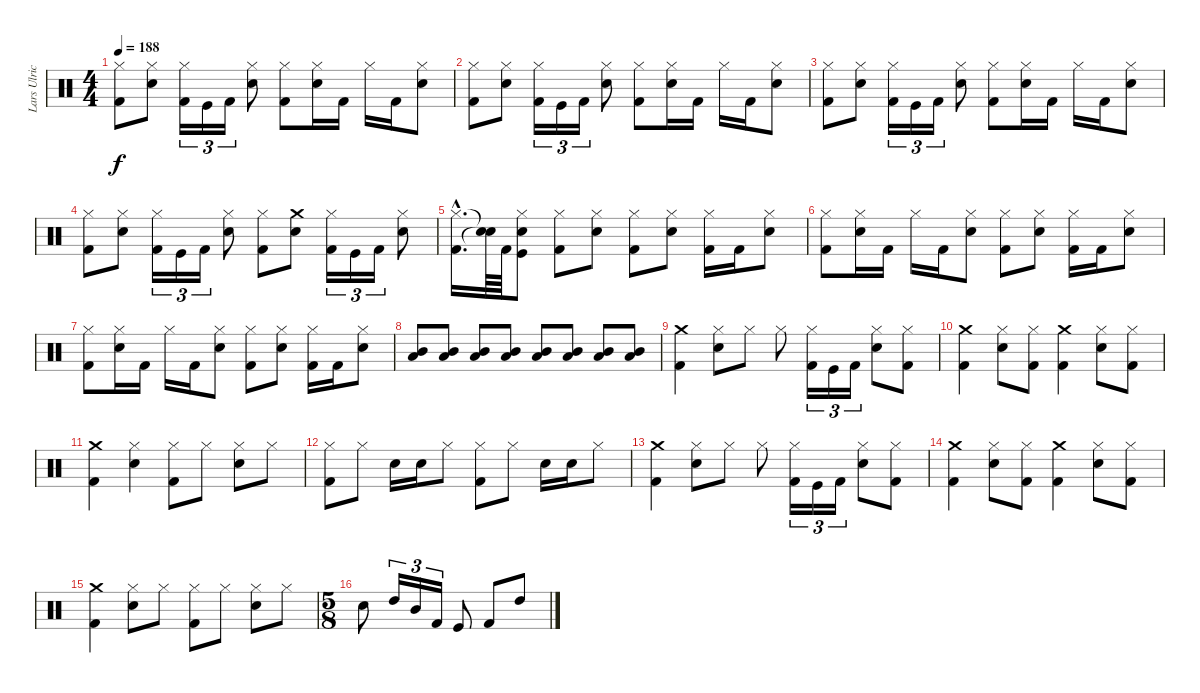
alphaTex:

\track ("Lars Ulrich (Drums)" "Lars Ulric") {instrument percussion}
\staff {score}
\articulation defaults
\ts (4 4)
\tempo 188
\clef neutral
\ks c
("Kick (hit) 2" "Hi-Hat (closed)").8{dy f} ("Snare (hit) 2" "Hi-Hat (closed)").8 ("Kick (hit) 2" "Hi-Hat (closed)").16{tu (3 2)} "Kick (hit)".16{tu (3 2)} "Kick (hit) 2".16{tu (3 2)} ("Snare (hit) 2" "Hi-Hat (closed)").8 ("Kick (hit) 2" "Hi-Hat (closed)").8 ("Snare (hit) 2" "Hi-Hat (closed)").16 "Kick (hit) 2".16 "Hi-Hat (closed)".16 "Kick (hit) 2".16 ("Snare (hit) 2" "Hi-Hat (closed)").8 |
("Kick (hit) 2" "Hi-Hat (closed)").8 ("Snare (hit) 2" "Hi-Hat (closed)").8 ("Kick (hit) 2" "Hi-Hat (closed)").16{tu (3 2)} "Kick (hit)".16{tu (3 2)} "Kick (hit) 2".16{tu (3 2)} ("Snare (hit) 2" "Hi-Hat (closed)").8 ("Kick (hit) 2" "Hi-Hat (closed)").8 ("Snare (hit) 2" "Hi-Hat (closed)").16 "Kick (hit) 2".16 "Hi-Hat (closed)".16 "Kick (hit) 2".16 ("Snare (hit) 2" "Hi-Hat (closed)").8 |
("Kick (hit) 2" "Hi-Hat (closed)").8 ("Snare (hit) 2" "Hi-Hat (closed)").8 ("Kick (hit) 2" "Hi-Hat (closed)").16{tu (3 2)} "Kick (hit)".16{tu (3 2)} "Kick (hit) 2".16{tu (3 2)} ("Snare (hit) 2" "Hi-Hat (closed)").8 ("Kick (hit) 2" "Hi-Hat (closed)").8 ("Snare (hit) 2" "Hi-Hat (closed)").16 "Kick (hit) 2".16 "Hi-Hat (closed)".16 "Kick (hit) 2".16 ("Snare (hit) 2" "Hi-Hat (closed)").8 |
("Kick (hit) 2" "Hi-Hat (closed)").8 ("Snare (hit) 2" "Hi-Hat (closed)").8 ("Kick (hit) 2" "Hi-Hat (closed)").16{tu (3 2)} "Kick (hit)".16{tu (3 2)} "Kick (hit) 2".16{tu (3 2)} ("Snare (hit) 2" "Hi-Hat (closed)").8 ("Kick (hit) 2" "Hi-Hat (closed)").8 ("Crash medium (hit)" "Snare (hit) 2").8 ("Kick (hit) 2" "Hi-Hat (closed)").16{tu (3 2)} "Kick (hit)".16{tu (3 2)} "Kick (hit) 2".16{tu (3 2)} ("Snare (hit) 2" "Hi-Hat (closed)").8 |
("Kick (hit) 2"{hac} "Hi-Hat (closed)"{hac}).16{d} ("Snare (hit)"{t} "Snare (hit)"{t}).64 "Kick (hit) 2".64 ("Kick (hit)" "Snare (hit) 2" "Hi-Hat (closed)").8 ("Kick (hit) 2" "Hi-Hat (closed)").8 ("Snare (hit) 2" "Hi-Hat (closed)").8 ("Kick (hit) 2" "Hi-Hat (closed)").8 ("Snare (hit) 2" "Hi-Hat (closed)").8 ("Kick (hit) 2" "Hi-Hat (closed)").16 "Kick (hit) 2".16 ("Snare (hit) 2" "Hi-Hat (closed)").8 |
("Hi-Hat (closed)" "Kick (hit) 2").8 ("Snare (hit) 2" "Hi-Hat (closed)").16 "Kick (hit) 2".16 "Hi-Hat (closed)".16 "Kick (hit) 2".16 ("Snare (hit) 2" "Hi-Hat (closed)").8 ("Hi-Hat (closed)" "Kick (hit) 2").8 ("Snare (hit) 2" "Hi-Hat (closed)").8 ("Hi-Hat (closed)" "Kick (hit) 2").16 "Kick (hit) 2".16 ("Snare (hit) 2" "Hi-Hat (closed)").8 |
("Hi-Hat (closed)" "Kick (hit) 2").8 ("Snare (hit) 2" "Hi-Hat (closed)").16 "Kick (hit) 2".16 "Hi-Hat (closed)".16 "Kick (hit) 2".16 ("Snare (hit) 2" "Hi-Hat (closed)").8 ("Hi-Hat (closed)" "Kick (hit) 2").8 ("Snare (hit) 2" "Hi-Hat (closed)").8 ("Hi-Hat (closed)" "Kick (hit) 2").16 "Kick (hit) 2".16 ("Snare (hit) 2" "Hi-Hat (closed)").8 |
("Mid Tom (hit)" "Low Tom (hit)").8 ("Mid Tom (hit)" "Low Tom (hit)").8 ("Mid Tom (hit)" "Low Tom (hit)").8 ("Mid Tom (hit)" "Low Tom (hit)").8 ("Mid Tom (hit)" "Low Tom (hit)").8 ("Mid Tom (hit)" "Low Tom (hit)").8 ("Mid Tom (hit)" "Low Tom (hit)").8 ("Mid Tom (hit)" "Low Tom (hit)").8 |
("Kick (hit) 2" "Crash medium (hit)").4 ("Snare (hit) 2" "Hi-Hat (closed)").8 "Hi-Hat (closed)".8 "Hi-Hat (closed)".8 ("Kick (hit) 2" "Hi-Hat (closed)").16{tu (3 2)} "Kick (hit)".16{tu (3 2)} "Kick (hit) 2".16{tu (3 2)} ("Snare (hit) 2" "Hi-Hat (closed)").8 ("Kick (hit) 2" "Hi-Hat (closed)").8 |
("Kick (hit) 2" "Crash medium (hit)").4 ("Hi-Hat (closed)" "Snare (hit) 2").8 ("Kick (hit) 2" "Hi-Hat (closed)").8 ("Crash medium (hit)" "Kick (hit) 2").4 ("Hi-Hat (closed)" "Snare (hit) 2").8 ("Kick (hit) 2" "Hi-Hat (closed)").8 |
("Kick (hit) 2" "Crash medium (hit)").4 ("Hi-Hat (closed)" "Snare (hit) 2").4 ("Hi-Hat (closed)" "Kick (hit) 2").8 "Hi-Hat (closed)".8 ("Snare (hit) 2" "Hi-Hat (closed)").8 "Hi-Hat (closed)".8 |
("Kick (hit) 2" "Hi-Hat (closed)").8 "Hi-Hat (closed)".8 "Snare (hit) 2".16 "Snare (hit) 2".16 "Hi-Hat (closed)".8 ("Kick (hit) 2" "Hi-Hat (closed)").8 "Hi-Hat (closed)".8 "Snare (hit) 2".16 "Snare (hit) 2".16 "Hi-Hat (closed)".8 |
("Kick (hit) 2" "Crash medium (hit)").4 ("Snare (hit) 2" "Hi-Hat (closed)").8 "Hi-Hat (closed)".8 "Hi-Hat (closed)".8 ("Kick (hit) 2" "Hi-Hat (closed)").16{tu (3 2)} "Kick (hit)".16{tu (3 2)} "Kick (hit) 2".16{tu (3 2)} ("Snare (hit) 2" "Hi-Hat (closed)").8 ("Kick (hit) 2" "Hi-Hat (closed)").8 |
("Kick (hit) 2" "Crash medium (hit)").4 ("Hi-Hat (closed)" "Snare (hit) 2").8 ("Kick (hit) 2" "Hi-Hat (closed)").8 ("Crash medium (hit)" "Kick (hit) 2").4 ("Hi-Hat (closed)" "Snare (hit) 2").8 ("Kick (hit) 2" "Hi-Hat (closed)").8 |
("Kick (hit) 2" "Crash medium (hit)").4 ("Hi-Hat (closed)" "Snare (hit) 2").8 "Hi-Hat (closed)".8 ("Hi-Hat (closed)" "Kick (hit) 2").8 "Hi-Hat (closed)".8 ("Snare (hit) 2" "Hi-Hat (closed)").8 "Hi-Hat (closed)".8 |
\ts (5 8)
"Snare (hit) 2".8 "High Tom (hit)".16{tu (3 2)} "Mid Tom (hit)".16{tu (3 2)} "Kick (hit) 2".16{tu (3 2)} "Kick (hit)".8 "Kick (hit) 2".8 "High Tom (hit)".8
